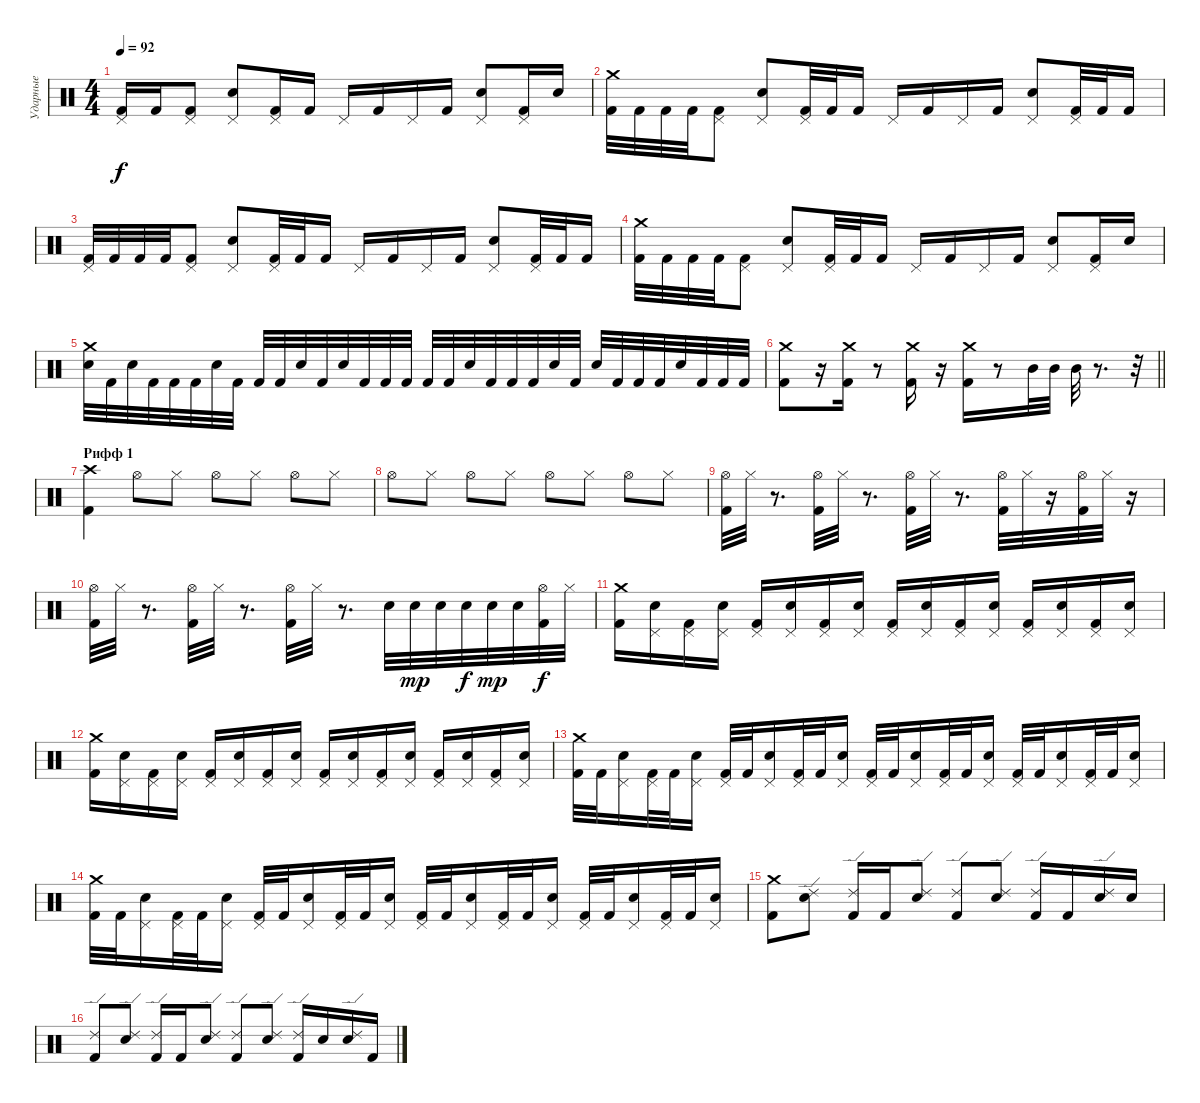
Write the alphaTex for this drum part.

\track ("Ударные" "Ударные") {instrument percussion}
\staff {score}
\articulation defaults
\ts (4 4)
\tempo 92
\clef neutral
\ks c
("Kick (hit) 2" "Pedal Hi-Hat (hit)").16{dy f} "Kick (hit) 2".16 ("Kick (hit) 2" "Pedal Hi-Hat (hit)").8 ("Electric Snare (hit)" "Pedal Hi-Hat (hit)").8 ("Kick (hit) 2" "Pedal Hi-Hat (hit)").16 "Kick (hit) 2".16 "Pedal Hi-Hat (hit)".16 "Kick (hit) 2".16 "Pedal Hi-Hat (hit)".16 "Kick (hit) 2".16 ("Electric Snare (hit)" "Pedal Hi-Hat (hit)").8 ("Kick (hit) 2" "Pedal Hi-Hat (hit)").16 "Electric Snare (hit)".16 |
("Crash medium (hit)" "Kick (hit) 2").32 "Kick (hit) 2".32 "Kick (hit) 2".32 "Kick (hit) 2".32 ("Kick (hit) 2" "Pedal Hi-Hat (hit)").8 ("Electric Snare (hit)" "Pedal Hi-Hat (hit)").8 ("Kick (hit) 2" "Pedal Hi-Hat (hit)").32 "Kick (hit) 2".32 "Kick (hit) 2".16 "Pedal Hi-Hat (hit)".16 "Kick (hit) 2".16 "Pedal Hi-Hat (hit)".16 "Kick (hit) 2".16 ("Electric Snare (hit)" "Pedal Hi-Hat (hit)").8 ("Kick (hit) 2" "Pedal Hi-Hat (hit)").32 "Kick (hit) 2".32 "Kick (hit) 2".16 |
("Kick (hit) 2" "Pedal Hi-Hat (hit)").32 "Kick (hit) 2".32 "Kick (hit) 2".32 "Kick (hit) 2".32 ("Kick (hit) 2" "Pedal Hi-Hat (hit)").8 ("Electric Snare (hit)" "Pedal Hi-Hat (hit)").8 ("Kick (hit) 2" "Pedal Hi-Hat (hit)").32 "Kick (hit) 2".32 "Kick (hit) 2".16 "Pedal Hi-Hat (hit)".16 "Kick (hit) 2".16 "Pedal Hi-Hat (hit)".16 "Kick (hit) 2".16 ("Electric Snare (hit)" "Pedal Hi-Hat (hit)").8 ("Kick (hit) 2" "Pedal Hi-Hat (hit)").32 "Kick (hit) 2".32 "Kick (hit) 2".16 |
("Crash medium (hit)" "Kick (hit) 2").32 "Kick (hit) 2".32 "Kick (hit) 2".32 "Kick (hit) 2".32 ("Kick (hit) 2" "Pedal Hi-Hat (hit)").8 ("Electric Snare (hit)" "Pedal Hi-Hat (hit)").8 ("Kick (hit) 2" "Pedal Hi-Hat (hit)").32 "Kick (hit) 2".32 "Kick (hit) 2".16 "Pedal Hi-Hat (hit)".16 "Kick (hit) 2".16 "Pedal Hi-Hat (hit)".16 "Kick (hit) 2".16 ("Electric Snare (hit)" "Pedal Hi-Hat (hit)").8 ("Kick (hit) 2" "Pedal Hi-Hat (hit)").16 "Electric Snare (hit)".16 |
("Crash medium (hit)" "Electric Snare (hit)").32 "Kick (hit) 2".32 "Electric Snare (hit)".32 "Kick (hit) 2".32 "Kick (hit) 2".32 "Kick (hit) 2".32 "Electric Snare (hit)".32 "Kick (hit) 2".32 "Kick (hit) 2".32 "Kick (hit) 2".32 "Electric Snare (hit)".32 "Kick (hit) 2".32 "Electric Snare (hit)".32 "Kick (hit) 2".32 "Kick (hit) 2".32 "Kick (hit) 2".32 "Kick (hit) 2".32 "Kick (hit) 2".32 "Electric Snare (hit)".32 "Kick (hit) 2".32 "Kick (hit) 2".32 "Kick (hit) 2".32 "Electric Snare (hit)".32 "Kick (hit) 2".32 "Electric Snare (hit)".32 "Kick (hit) 2".32 "Kick (hit) 2".32 "Kick (hit) 2".32 "Electric Snare (hit)".32 "Kick (hit) 2".32 "Kick (hit) 2".32 "Kick (hit) 2".32 |
\barLineRight lightlight
("Kick (hit) 2" "Crash medium (hit)").8 r.16 ("Crash medium (hit)" "Kick (hit) 2").16 r.8 ("Crash medium (hit)" "Kick (hit) 2").16 r.16 ("Crash medium (hit)" "Kick (hit) 2").16 r.8 "Mid Tom (hit)".32 "Mid Tom (hit)".32 "Mid Tom (hit)".32 r.8{d} r.32 |
\section ("" "Рифф 1")
("Kick (hit) 2" "Crash high (hit)").4 "Hi-Hat (open)".8 "Hi-Hat (closed)".8 "Hi-Hat (open)".8 "Hi-Hat (closed)".8 "Hi-Hat (open)".8 "Hi-Hat (closed)".8 |
"Hi-Hat (open)".8 "Hi-Hat (closed)".8 "Hi-Hat (open)".8 "Hi-Hat (closed)".8 "Hi-Hat (open)".8 "Hi-Hat (closed)".8 "Hi-Hat (open)".8 "Hi-Hat (closed)".8 |
("Hi-Hat (open)" "Kick (hit) 2").32 "Hi-Hat (closed)".32 r.8{d} ("Hi-Hat (open)" "Kick (hit) 2").32 "Hi-Hat (closed)".32 r.8{d} ("Hi-Hat (open)" "Kick (hit) 2").32 "Hi-Hat (closed)".32 r.8{d} ("Hi-Hat (open)" "Kick (hit) 2").32 "Hi-Hat (closed)".32 r.16 ("Hi-Hat (open)" "Kick (hit) 2").32 "Hi-Hat (closed)".32 r.16 |
("Hi-Hat (open)" "Kick (hit) 2").32 "Hi-Hat (closed)".32 r.8{d} ("Hi-Hat (open)" "Kick (hit) 2").32 "Hi-Hat (closed)".32 r.8{d} ("Hi-Hat (open)" "Kick (hit) 2").32 "Hi-Hat (closed)".32 r.8{d} "Electric Snare (hit)".32 "Snare (hit) 2".32{dy mp} "Snare (hit) 2".32 "Electric Snare (hit)".32{dy f} "Snare (hit) 2".32{dy mp} "Snare (hit) 2".32 ("Kick (hit) 2" "Hi-Hat (open)").32{dy f} "Hi-Hat (closed)".32 |
("Crash medium (hit)" "Kick (hit) 2").16 ("Pedal Hi-Hat (hit)" "Electric Snare (hit)").16 ("Pedal Hi-Hat (hit)" "Kick (hit) 2").16 ("Pedal Hi-Hat (hit)" "Electric Snare (hit)").16 ("Kick (hit) 2" "Pedal Hi-Hat (hit)").16 ("Electric Snare (hit)" "Pedal Hi-Hat (hit)").16 ("Kick (hit) 2" "Pedal Hi-Hat (hit)").16 ("Electric Snare (hit)" "Pedal Hi-Hat (hit)").16 ("Kick (hit) 2" "Pedal Hi-Hat (hit)").16 ("Electric Snare (hit)" "Pedal Hi-Hat (hit)").16 ("Kick (hit) 2" "Pedal Hi-Hat (hit)").16 ("Electric Snare (hit)" "Pedal Hi-Hat (hit)").16 ("Kick (hit) 2" "Pedal Hi-Hat (hit)").16 ("Electric Snare (hit)" "Pedal Hi-Hat (hit)").16 ("Kick (hit) 2" "Pedal Hi-Hat (hit)").16 ("Electric Snare (hit)" "Pedal Hi-Hat (hit)").16 |
("Crash medium (hit)" "Kick (hit) 2").16 ("Pedal Hi-Hat (hit)" "Electric Snare (hit)").16 ("Pedal Hi-Hat (hit)" "Kick (hit) 2").16 ("Pedal Hi-Hat (hit)" "Electric Snare (hit)").16 ("Kick (hit) 2" "Pedal Hi-Hat (hit)").16 ("Electric Snare (hit)" "Pedal Hi-Hat (hit)").16 ("Kick (hit) 2" "Pedal Hi-Hat (hit)").16 ("Electric Snare (hit)" "Pedal Hi-Hat (hit)").16 ("Kick (hit) 2" "Pedal Hi-Hat (hit)").16 ("Electric Snare (hit)" "Pedal Hi-Hat (hit)").16 ("Kick (hit) 2" "Pedal Hi-Hat (hit)").16 ("Electric Snare (hit)" "Pedal Hi-Hat (hit)").16 ("Kick (hit) 2" "Pedal Hi-Hat (hit)").16 ("Electric Snare (hit)" "Pedal Hi-Hat (hit)").16 ("Kick (hit) 2" "Pedal Hi-Hat (hit)").16 ("Electric Snare (hit)" "Pedal Hi-Hat (hit)").16 |
("Crash medium (hit)" "Kick (hit) 2").32 "Kick (hit) 2".32 ("Pedal Hi-Hat (hit)" "Electric Snare (hit)").16 ("Pedal Hi-Hat (hit)" "Kick (hit) 2").32 "Kick (hit) 2".32 ("Pedal Hi-Hat (hit)" "Electric Snare (hit)").16 ("Kick (hit) 2" "Pedal Hi-Hat (hit)").32 "Kick (hit) 2".32 ("Electric Snare (hit)" "Pedal Hi-Hat (hit)").16 ("Kick (hit) 2" "Pedal Hi-Hat (hit)").32 "Kick (hit) 2".32 ("Electric Snare (hit)" "Pedal Hi-Hat (hit)").16 ("Kick (hit) 2" "Pedal Hi-Hat (hit)").32 "Kick (hit) 2".32 ("Electric Snare (hit)" "Pedal Hi-Hat (hit)").16 ("Kick (hit) 2" "Pedal Hi-Hat (hit)").32 "Kick (hit) 2".32 ("Electric Snare (hit)" "Pedal Hi-Hat (hit)").16 ("Kick (hit) 2" "Pedal Hi-Hat (hit)").32 "Kick (hit) 2".32 ("Electric Snare (hit)" "Pedal Hi-Hat (hit)").16 ("Kick (hit) 2" "Pedal Hi-Hat (hit)").32 "Kick (hit) 2".32 ("Electric Snare (hit)" "Pedal Hi-Hat (hit)").16 |
("Crash medium (hit)" "Kick (hit) 2").32 "Kick (hit) 2".32 ("Pedal Hi-Hat (hit)" "Electric Snare (hit)").16 ("Pedal Hi-Hat (hit)" "Kick (hit) 2").32 "Kick (hit) 2".32 ("Pedal Hi-Hat (hit)" "Electric Snare (hit)").16 ("Kick (hit) 2" "Pedal Hi-Hat (hit)").32 "Kick (hit) 2".32 ("Electric Snare (hit)" "Pedal Hi-Hat (hit)").16 ("Kick (hit) 2" "Pedal Hi-Hat (hit)").32 "Kick (hit) 2".32 ("Electric Snare (hit)" "Pedal Hi-Hat (hit)").16 ("Kick (hit) 2" "Pedal Hi-Hat (hit)").32 "Kick (hit) 2".32 ("Electric Snare (hit)" "Pedal Hi-Hat (hit)").16 ("Kick (hit) 2" "Pedal Hi-Hat (hit)").32 "Kick (hit) 2".32 ("Electric Snare (hit)" "Pedal Hi-Hat (hit)").16 ("Kick (hit) 2" "Pedal Hi-Hat (hit)").32 "Kick (hit) 2".32 ("Electric Snare (hit)" "Pedal Hi-Hat (hit)").16 ("Kick (hit) 2" "Pedal Hi-Hat (hit)").32 "Kick (hit) 2".32 ("Electric Snare (hit)" "Pedal Hi-Hat (hit)").16 |
("Crash medium (hit)" "Kick (hit) 2").8 ("Ride (edge) 2" "Electric Snare (hit)").8 ("Ride (edge) 2" "Kick (hit) 2").16 "Kick (hit) 2".16 ("Ride (edge) 2" "Electric Snare (hit)").8 ("Ride (edge) 2" "Kick (hit) 2").8 ("Ride (edge) 2" "Electric Snare (hit)").8 ("Ride (edge) 2" "Kick (hit) 2").16 "Kick (hit) 2".16 ("Ride (edge) 2" "Electric Snare (hit)").16 "Electric Snare (hit)".16 |
("Ride (edge) 2" "Kick (hit) 2").8 ("Ride (edge) 2" "Electric Snare (hit)").8 ("Ride (edge) 2" "Kick (hit) 2").16 "Kick (hit) 2".16 ("Ride (edge) 2" "Electric Snare (hit)").8 ("Ride (edge) 2" "Kick (hit) 2").8 ("Ride (edge) 2" "Electric Snare (hit)").8 ("Ride (edge) 2" "Kick (hit) 2").16 "Electric Snare (hit)".16 ("Ride (edge) 2" "Electric Snare (hit)").16 "Kick (hit) 2".16
